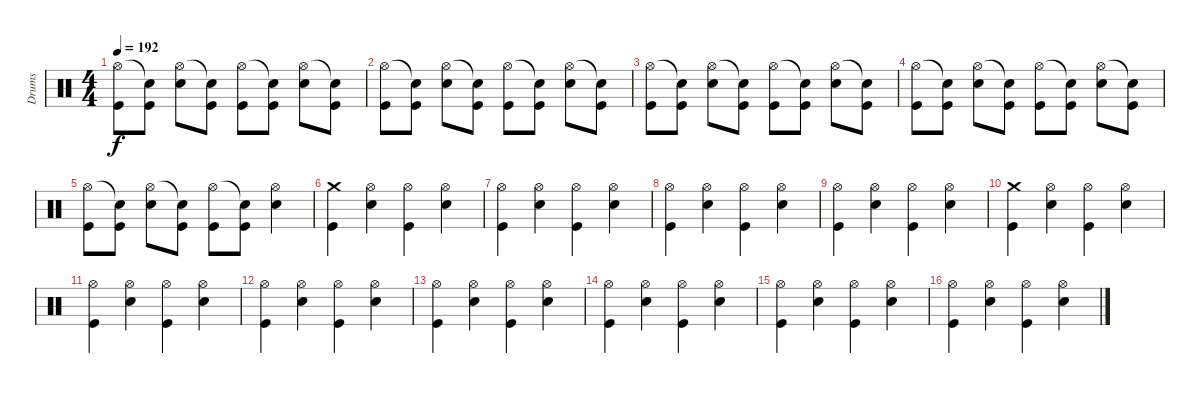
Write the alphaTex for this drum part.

\track ("Drums" "Drums") {instrument percussion}
\staff {score}
\articulation defaults
\ts (4 4)
\tempo 192
\clef neutral
\ks c
("Kick (hit)" "Hi-Hat (open)").8{dy f} ("Kick (hit)" "Snare (hit)"{t}).8 ("Snare (hit) 2" "Hi-Hat (open)").8 ("Kick (hit)" "Snare (hit)"{t}).8 ("Kick (hit)" "Hi-Hat (open)").8 ("Kick (hit)" "Snare (hit)"{t}).8 ("Snare (hit) 2" "Hi-Hat (open)").8 ("Kick (hit)" "Snare (hit)"{t}).8 |
("Kick (hit)" "Hi-Hat (open)").8 ("Kick (hit)" "Snare (hit)"{t}).8 ("Snare (hit) 2" "Hi-Hat (open)").8 ("Kick (hit)" "Snare (hit)"{t}).8 ("Kick (hit)" "Hi-Hat (open)").8 ("Kick (hit)" "Snare (hit)"{t}).8 ("Snare (hit) 2" "Hi-Hat (open)").8 ("Kick (hit)" "Snare (hit)"{t}).8 |
("Kick (hit)" "Hi-Hat (open)").8 ("Kick (hit)" "Snare (hit)"{t}).8 ("Snare (hit) 2" "Hi-Hat (open)").8 ("Kick (hit)" "Snare (hit)"{t}).8 ("Kick (hit)" "Hi-Hat (open)").8 ("Kick (hit)" "Snare (hit)"{t}).8 ("Snare (hit) 2" "Hi-Hat (open)").8 ("Kick (hit)" "Snare (hit)"{t}).8 |
("Kick (hit)" "Hi-Hat (open)").8 ("Kick (hit)" "Snare (hit)"{t}).8 ("Snare (hit) 2" "Hi-Hat (open)").8 ("Kick (hit)" "Snare (hit)"{t}).8 ("Kick (hit)" "Hi-Hat (open)").8 ("Kick (hit)" "Snare (hit)"{t}).8 ("Snare (hit) 2" "Hi-Hat (open)").8 ("Kick (hit)" "Snare (hit)"{t}).8 |
("Kick (hit)" "Hi-Hat (open)").8 ("Kick (hit)" "Snare (hit)"{t}).8 ("Snare (hit) 2" "Hi-Hat (open)").8 ("Kick (hit)" "Snare (hit)"{t}).8 ("Kick (hit)" "Hi-Hat (open)").8 ("Kick (hit)" "Snare (hit)"{t}).8 ("Snare (hit) 2" "Hi-Hat (open)").4 |
("Kick (hit)" "Crash medium (hit)").4 ("Snare (hit) 2" "Hi-Hat (open)").4 ("Kick (hit)" "Hi-Hat (open)").4 ("Snare (hit) 2" "Hi-Hat (open)").4 |
("Kick (hit)" "Hi-Hat (open)").4 ("Snare (hit) 2" "Hi-Hat (open)").4 ("Kick (hit)" "Hi-Hat (open)").4 ("Snare (hit) 2" "Hi-Hat (open)").4 |
("Kick (hit)" "Hi-Hat (open)").4 ("Snare (hit) 2" "Hi-Hat (open)").4 ("Kick (hit)" "Hi-Hat (open)").4 ("Snare (hit) 2" "Hi-Hat (open)").4 |
("Kick (hit)" "Hi-Hat (open)").4 ("Snare (hit) 2" "Hi-Hat (open)").4 ("Kick (hit)" "Hi-Hat (open)").4 ("Snare (hit) 2" "Hi-Hat (open)").4 |
("Kick (hit)" "Crash medium (hit)").4 ("Snare (hit) 2" "Hi-Hat (open)").4 ("Kick (hit)" "Hi-Hat (open)").4 ("Snare (hit) 2" "Hi-Hat (open)").4 |
("Kick (hit)" "Hi-Hat (open)").4 ("Snare (hit) 2" "Hi-Hat (open)").4 ("Kick (hit)" "Hi-Hat (open)").4 ("Snare (hit) 2" "Hi-Hat (open)").4 |
("Kick (hit)" "Hi-Hat (open)").4 ("Snare (hit) 2" "Hi-Hat (open)").4 ("Kick (hit)" "Hi-Hat (open)").4 ("Snare (hit) 2" "Hi-Hat (open)").4 |
("Kick (hit)" "Hi-Hat (open)").4 ("Snare (hit) 2" "Hi-Hat (open)").4 ("Kick (hit)" "Hi-Hat (open)").4 ("Snare (hit) 2" "Hi-Hat (open)").4 |
("Kick (hit)" "Hi-Hat (open)").4 ("Snare (hit) 2" "Hi-Hat (open)").4 ("Kick (hit)" "Hi-Hat (open)").4 ("Snare (hit) 2" "Hi-Hat (open)").4 |
("Kick (hit)" "Hi-Hat (open)").4 ("Snare (hit) 2" "Hi-Hat (open)").4 ("Kick (hit)" "Hi-Hat (open)").4 ("Snare (hit) 2" "Hi-Hat (open)").4 |
("Kick (hit)" "Hi-Hat (open)").4 ("Snare (hit) 2" "Hi-Hat (open)").4 ("Kick (hit)" "Hi-Hat (open)").4 ("Snare (hit) 2" "Hi-Hat (open)").4
